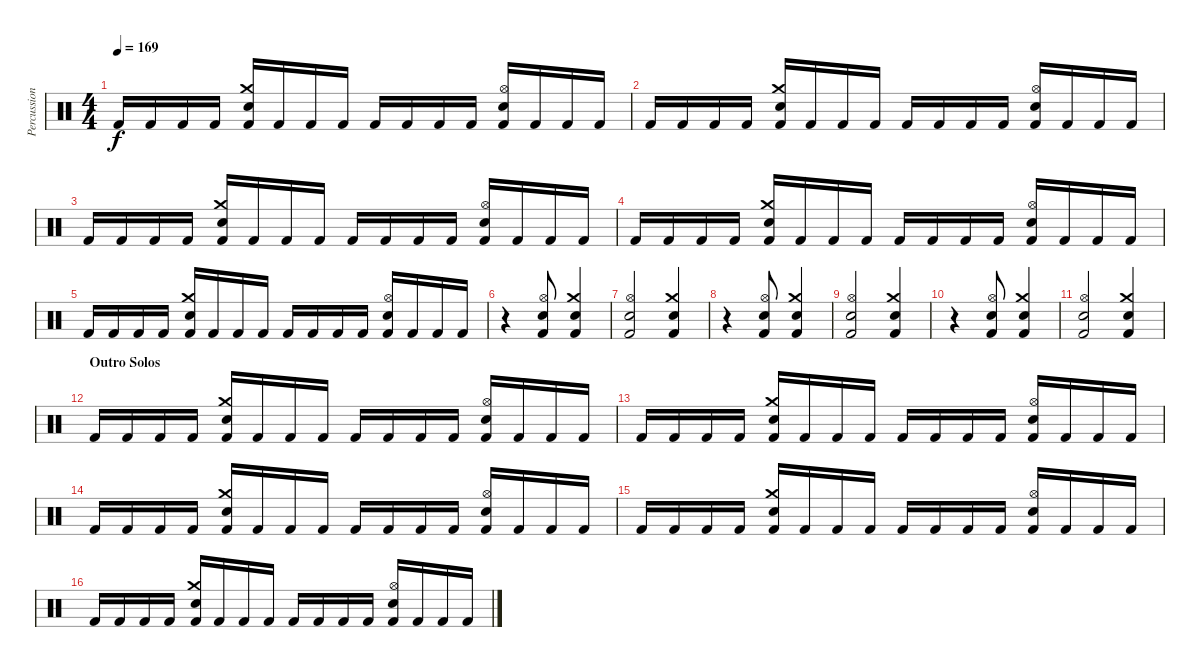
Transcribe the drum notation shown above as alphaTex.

\track ("Percussion" "Percussion") {instrument percussion}
\staff {score}
\articulation defaults
\ts (4 4)
\tempo 169
\clef neutral
\ks c "Kick (hit) 2".16{dy f} "Kick (hit) 2".16 "Kick (hit) 2".16 "Kick (hit) 2".16
("Crash medium (hit)" "Electric Snare (hit)" "Kick (hit) 2").16 "Kick (hit) 2".16 "Kick (hit) 2".16 "Kick (hit) 2".16 "Kick (hit) 2".16 "Kick (hit) 2".16 "Kick (hit) 2".16 "Kick (hit) 2".16 ("Hi-Hat (open)" "Snare (hit) 2" "Kick (hit) 2").16 "Kick (hit) 2".16 "Kick (hit) 2".16 "Kick (hit) 2".16 |
"Kick (hit) 2".16 "Kick (hit) 2".16 "Kick (hit) 2".16 "Kick (hit) 2".16 ("Crash medium (hit)" "Electric Snare (hit)" "Kick (hit) 2").16 "Kick (hit) 2".16 "Kick (hit) 2".16 "Kick (hit) 2".16 "Kick (hit) 2".16 "Kick (hit) 2".16 "Kick (hit) 2".16 "Kick (hit) 2".16 ("Hi-Hat (open)" "Snare (hit) 2" "Kick (hit) 2").16 "Kick (hit) 2".16 "Kick (hit) 2".16 "Kick (hit) 2".16 |
"Kick (hit) 2".16 "Kick (hit) 2".16 "Kick (hit) 2".16 "Kick (hit) 2".16 ("Crash medium (hit)" "Electric Snare (hit)" "Kick (hit) 2").16 "Kick (hit) 2".16 "Kick (hit) 2".16 "Kick (hit) 2".16 "Kick (hit) 2".16 "Kick (hit) 2".16 "Kick (hit) 2".16 "Kick (hit) 2".16 ("Hi-Hat (open)" "Snare (hit) 2" "Kick (hit) 2").16 "Kick (hit) 2".16 "Kick (hit) 2".16 "Kick (hit) 2".16 |
"Kick (hit) 2".16 "Kick (hit) 2".16 "Kick (hit) 2".16 "Kick (hit) 2".16 ("Crash medium (hit)" "Electric Snare (hit)" "Kick (hit) 2").16 "Kick (hit) 2".16 "Kick (hit) 2".16 "Kick (hit) 2".16 "Kick (hit) 2".16 "Kick (hit) 2".16 "Kick (hit) 2".16 "Kick (hit) 2".16 ("Hi-Hat (open)" "Snare (hit) 2" "Kick (hit) 2").16 "Kick (hit) 2".16 "Kick (hit) 2".16 "Kick (hit) 2".16 |
"Kick (hit) 2".16 "Kick (hit) 2".16 "Kick (hit) 2".16 "Kick (hit) 2".16 ("Crash medium (hit)" "Electric Snare (hit)" "Kick (hit) 2").16 "Kick (hit) 2".16 "Kick (hit) 2".16 "Kick (hit) 2".16 "Kick (hit) 2".16 "Kick (hit) 2".16 "Kick (hit) 2".16 "Kick (hit) 2".16 ("Hi-Hat (open)" "Snare (hit) 2" "Kick (hit) 2").16 "Kick (hit) 2".16 "Kick (hit) 2".16 "Kick (hit) 2".16 |
r.4 ("Hi-Hat (open)" "Snare (hit) 2" "Kick (hit) 2").8 ("Crash medium (hit)" "Snare (hit) 2" "Kick (hit) 2").4 |
("Hi-Hat (open)" "Snare (hit) 2" "Kick (hit) 2").2 ("Crash medium (hit)" "Snare (hit) 2" "Kick (hit) 2").4 |
r.4 ("Hi-Hat (open)" "Snare (hit) 2" "Kick (hit) 2").8 ("Crash medium (hit)" "Snare (hit) 2" "Kick (hit) 2").4 |
("Hi-Hat (open)" "Snare (hit) 2" "Kick (hit) 2").2 ("Crash medium (hit)" "Snare (hit) 2" "Kick (hit) 2").4 |
r.4 ("Hi-Hat (open)" "Snare (hit) 2" "Kick (hit) 2").8 ("Crash medium (hit)" "Snare (hit) 2" "Kick (hit) 2").4 |
("Hi-Hat (open)" "Snare (hit) 2" "Kick (hit) 2").2 ("Crash medium (hit)" "Snare (hit) 2" "Kick (hit) 2").4 |
\section ("" "Outro Solos")
"Kick (hit) 2".16 "Kick (hit) 2".16 "Kick (hit) 2".16 "Kick (hit) 2".16 ("Crash medium (hit)" "Electric Snare (hit)" "Kick (hit) 2").16 "Kick (hit) 2".16 "Kick (hit) 2".16 "Kick (hit) 2".16 "Kick (hit) 2".16 "Kick (hit) 2".16 "Kick (hit) 2".16 "Kick (hit) 2".16 ("Hi-Hat (open)" "Snare (hit) 2" "Kick (hit) 2").16 "Kick (hit) 2".16 "Kick (hit) 2".16 "Kick (hit) 2".16 |
"Kick (hit) 2".16 "Kick (hit) 2".16 "Kick (hit) 2".16 "Kick (hit) 2".16 ("Crash medium (hit)" "Electric Snare (hit)" "Kick (hit) 2").16 "Kick (hit) 2".16 "Kick (hit) 2".16 "Kick (hit) 2".16 "Kick (hit) 2".16 "Kick (hit) 2".16 "Kick (hit) 2".16 "Kick (hit) 2".16 ("Hi-Hat (open)" "Snare (hit) 2" "Kick (hit) 2").16 "Kick (hit) 2".16 "Kick (hit) 2".16 "Kick (hit) 2".16 |
"Kick (hit) 2".16 "Kick (hit) 2".16 "Kick (hit) 2".16 "Kick (hit) 2".16 ("Crash medium (hit)" "Electric Snare (hit)" "Kick (hit) 2").16 "Kick (hit) 2".16 "Kick (hit) 2".16 "Kick (hit) 2".16 "Kick (hit) 2".16 "Kick (hit) 2".16 "Kick (hit) 2".16 "Kick (hit) 2".16 ("Hi-Hat (open)" "Snare (hit) 2" "Kick (hit) 2").16 "Kick (hit) 2".16 "Kick (hit) 2".16 "Kick (hit) 2".16 |
"Kick (hit) 2".16 "Kick (hit) 2".16 "Kick (hit) 2".16 "Kick (hit) 2".16 ("Crash medium (hit)" "Electric Snare (hit)" "Kick (hit) 2").16 "Kick (hit) 2".16 "Kick (hit) 2".16 "Kick (hit) 2".16 "Kick (hit) 2".16 "Kick (hit) 2".16 "Kick (hit) 2".16 "Kick (hit) 2".16 ("Hi-Hat (open)" "Snare (hit) 2" "Kick (hit) 2").16 "Kick (hit) 2".16 "Kick (hit) 2".16 "Kick (hit) 2".16 |
"Kick (hit) 2".16 "Kick (hit) 2".16 "Kick (hit) 2".16 "Kick (hit) 2".16 ("Crash medium (hit)" "Electric Snare (hit)" "Kick (hit) 2").16 "Kick (hit) 2".16 "Kick (hit) 2".16 "Kick (hit) 2".16 "Kick (hit) 2".16 "Kick (hit) 2".16 "Kick (hit) 2".16 "Kick (hit) 2".16 ("Hi-Hat (open)" "Snare (hit) 2" "Kick (hit) 2").16 "Kick (hit) 2".16 "Kick (hit) 2".16 "Kick (hit) 2".16
